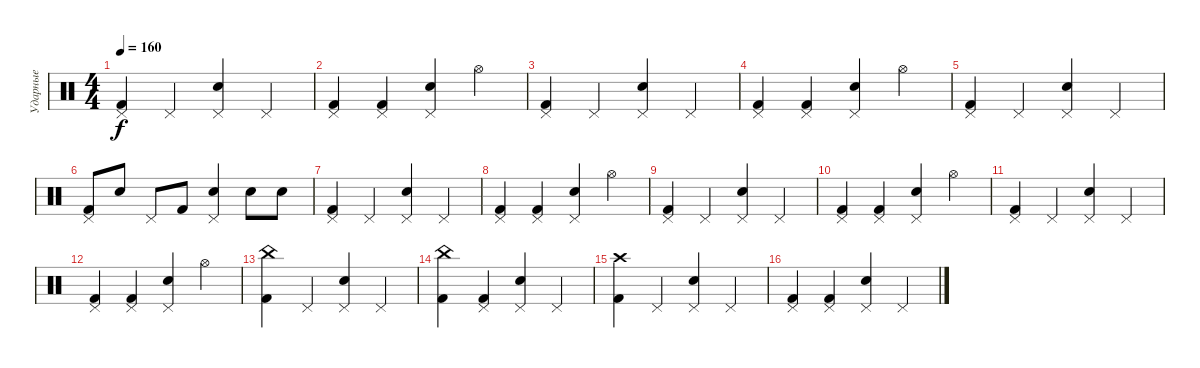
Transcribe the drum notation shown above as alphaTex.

\track ("Ударные" "Ударные") {instrument percussion}
\staff {score}
\articulation defaults
\ts (4 4)
\tempo 160
\clef neutral
\ks c
("Pedal Hi-Hat (hit)" "Kick (hit) 2").4{dy f} "Pedal Hi-Hat (hit)".4 ("Snare (hit) 2" "Pedal Hi-Hat (hit)").4 "Pedal Hi-Hat (hit)".4 |
("Pedal Hi-Hat (hit)" "Kick (hit) 2").4 ("Pedal Hi-Hat (hit)" "Kick (hit) 2").4 ("Snare (hit) 2" "Pedal Hi-Hat (hit)").4 "Hi-Hat (open)".4 |
("Pedal Hi-Hat (hit)" "Kick (hit) 2").4 "Pedal Hi-Hat (hit)".4 ("Snare (hit) 2" "Pedal Hi-Hat (hit)").4 "Pedal Hi-Hat (hit)".4 |
("Pedal Hi-Hat (hit)" "Kick (hit) 2").4 ("Pedal Hi-Hat (hit)" "Kick (hit) 2").4 ("Snare (hit) 2" "Pedal Hi-Hat (hit)").4 "Hi-Hat (open)".4 |
("Pedal Hi-Hat (hit)" "Kick (hit) 2").4 "Pedal Hi-Hat (hit)".4 ("Snare (hit) 2" "Pedal Hi-Hat (hit)").4 "Pedal Hi-Hat (hit)".4 |
("Pedal Hi-Hat (hit)" "Kick (hit) 2").8 "Snare (hit) 2".8 "Pedal Hi-Hat (hit)".8 "Kick (hit) 2".8 ("Snare (hit) 2" "Pedal Hi-Hat (hit)").4 "Snare (hit) 2".8 "Snare (hit) 2".8 |
("Pedal Hi-Hat (hit)" "Kick (hit) 2").4 "Pedal Hi-Hat (hit)".4 ("Snare (hit) 2" "Pedal Hi-Hat (hit)").4 "Pedal Hi-Hat (hit)".4 |
("Pedal Hi-Hat (hit)" "Kick (hit) 2").4 ("Pedal Hi-Hat (hit)" "Kick (hit) 2").4 ("Snare (hit) 2" "Pedal Hi-Hat (hit)").4 "Hi-Hat (open)".4 |
("Pedal Hi-Hat (hit)" "Kick (hit) 2").4 "Pedal Hi-Hat (hit)".4 ("Snare (hit) 2" "Pedal Hi-Hat (hit)").4 "Pedal Hi-Hat (hit)".4 |
("Pedal Hi-Hat (hit)" "Kick (hit) 2").4 ("Pedal Hi-Hat (hit)" "Kick (hit) 2").4 ("Snare (hit) 2" "Pedal Hi-Hat (hit)").4 "Hi-Hat (open)".4 |
("Pedal Hi-Hat (hit)" "Kick (hit) 2").4 "Pedal Hi-Hat (hit)".4 ("Snare (hit) 2" "Pedal Hi-Hat (hit)").4 "Pedal Hi-Hat (hit)".4 |
("Pedal Hi-Hat (hit)" "Kick (hit) 2").4 ("Pedal Hi-Hat (hit)" "Kick (hit) 2").4 ("Snare (hit) 2" "Pedal Hi-Hat (hit)").4 "Hi-Hat (open)".4 |
("China (hit)" "Kick (hit) 2").4 "Pedal Hi-Hat (hit)".4 ("Snare (hit) 2" "Pedal Hi-Hat (hit)").4 "Pedal Hi-Hat (hit)".4 |
("China (hit)" "Kick (hit) 2").4 ("Pedal Hi-Hat (hit)" "Kick (hit) 2").4 ("Snare (hit) 2" "Pedal Hi-Hat (hit)").4 "Pedal Hi-Hat (hit)".4 |
("Crash high (hit)" "Kick (hit) 2").4 "Pedal Hi-Hat (hit)".4 ("Snare (hit) 2" "Pedal Hi-Hat (hit)").4 "Pedal Hi-Hat (hit)".4 |
("Pedal Hi-Hat (hit)" "Kick (hit) 2").4 ("Pedal Hi-Hat (hit)" "Kick (hit) 2").4 ("Snare (hit) 2" "Pedal Hi-Hat (hit)").4 "Pedal Hi-Hat (hit)".4
